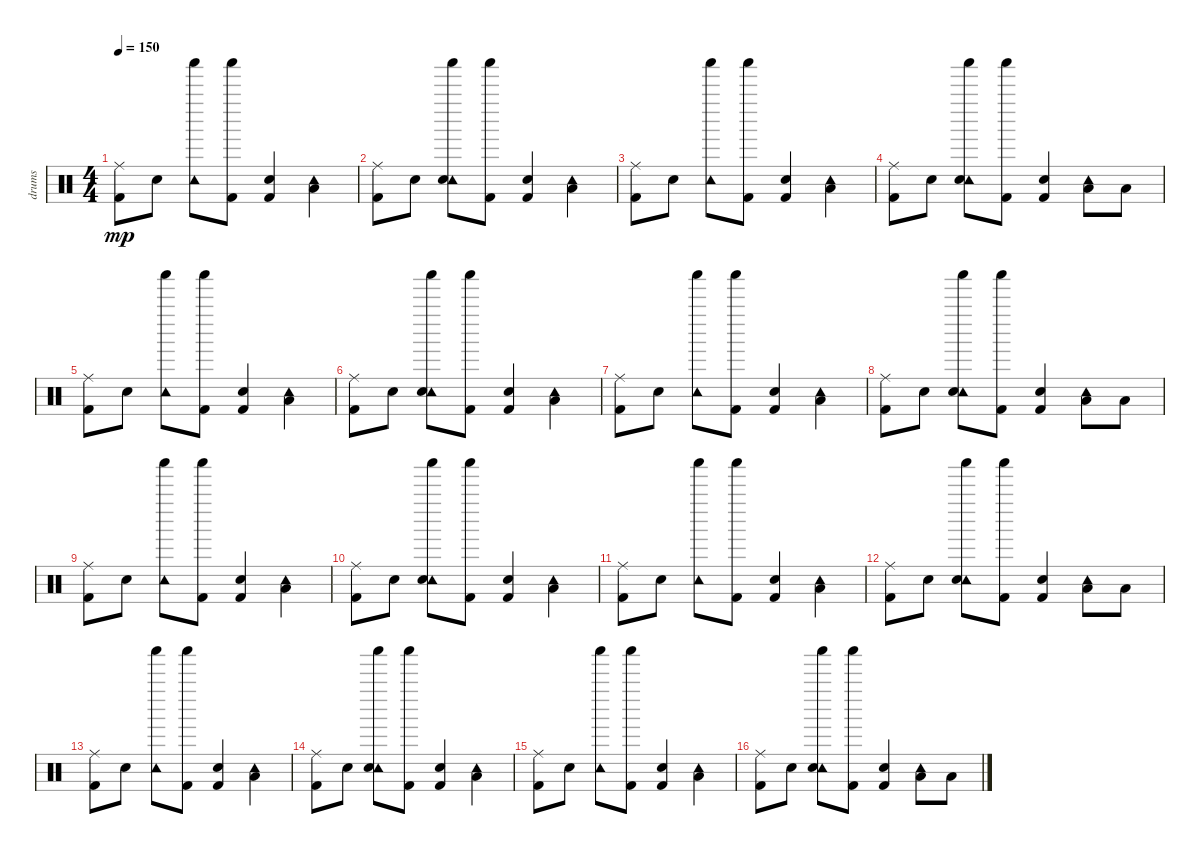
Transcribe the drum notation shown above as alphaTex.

\track ("drums" "drums") {instrument percussion}
\staff {score}
\articulation defaults
\ts (4 4)
\tempo 150
\clef neutral
\ks c
("Ride (middle)" "Kick (hit) 2").8{dy mp} "Snare (hit) 2".8 ("Shaker (hit)" "Tambourine (hit)").8 ("Shaker (hit)" "Kick (hit) 2").8 ("Kick (hit) 2" "Snare (hit) 2").4 ("Tambourine (hit)" "Low Tom (hit)").4 |
("Ride (middle)" "Kick (hit) 2").8 "Snare (hit) 2".8 ("Shaker (hit)" "Tambourine (hit)" "Snare (hit) 2").8 ("Shaker (hit)" "Kick (hit) 2").8 ("Kick (hit) 2" "Snare (hit) 2").4 ("Tambourine (hit)" "Low Tom (hit)").4 |
("Ride (middle)" "Kick (hit) 2").8 "Snare (hit) 2".8 ("Shaker (hit)" "Tambourine (hit)").8 ("Shaker (hit)" "Kick (hit) 2").8 ("Kick (hit) 2" "Snare (hit) 2").4 ("Tambourine (hit)" "Low Tom (hit)").4 |
("Ride (middle)" "Kick (hit) 2").8 "Snare (hit) 2".8 ("Shaker (hit)" "Tambourine (hit)" "Snare (hit) 2").8 ("Shaker (hit)" "Kick (hit) 2").8 ("Kick (hit) 2" "Snare (hit) 2").4 ("Tambourine (hit)" "Low Tom (hit)").8 "Low Tom (hit)".8 |
("Ride (middle)" "Kick (hit) 2").8 "Snare (hit) 2".8 ("Shaker (hit)" "Tambourine (hit)").8 ("Shaker (hit)" "Kick (hit) 2").8 ("Kick (hit) 2" "Snare (hit) 2").4 ("Tambourine (hit)" "Low Tom (hit)").4 |
("Ride (middle)" "Kick (hit) 2").8 "Snare (hit) 2".8 ("Shaker (hit)" "Tambourine (hit)" "Snare (hit) 2").8 ("Shaker (hit)" "Kick (hit) 2").8 ("Kick (hit) 2" "Snare (hit) 2").4 ("Tambourine (hit)" "Low Tom (hit)").4 |
("Ride (middle)" "Kick (hit) 2").8 "Snare (hit) 2".8 ("Shaker (hit)" "Tambourine (hit)").8 ("Shaker (hit)" "Kick (hit) 2").8 ("Kick (hit) 2" "Snare (hit) 2").4 ("Tambourine (hit)" "Low Tom (hit)").4 |
("Ride (middle)" "Kick (hit) 2").8 "Snare (hit) 2".8 ("Shaker (hit)" "Tambourine (hit)" "Snare (hit) 2").8 ("Shaker (hit)" "Kick (hit) 2").8 ("Kick (hit) 2" "Snare (hit) 2").4 ("Tambourine (hit)" "Low Tom (hit)").8 "Low Tom (hit)".8 |
("Ride (middle)" "Kick (hit) 2").8 "Snare (hit) 2".8 ("Shaker (hit)" "Tambourine (hit)").8 ("Shaker (hit)" "Kick (hit) 2").8 ("Kick (hit) 2" "Snare (hit) 2").4 ("Tambourine (hit)" "Low Tom (hit)").4 |
("Ride (middle)" "Kick (hit) 2").8 "Snare (hit) 2".8 ("Shaker (hit)" "Tambourine (hit)" "Snare (hit) 2").8 ("Shaker (hit)" "Kick (hit) 2").8 ("Kick (hit) 2" "Snare (hit) 2").4 ("Tambourine (hit)" "Low Tom (hit)").4 |
("Ride (middle)" "Kick (hit) 2").8 "Snare (hit) 2".8 ("Shaker (hit)" "Tambourine (hit)").8 ("Shaker (hit)" "Kick (hit) 2").8 ("Kick (hit) 2" "Snare (hit) 2").4 ("Tambourine (hit)" "Low Tom (hit)").4 |
("Ride (middle)" "Kick (hit) 2").8 "Snare (hit) 2".8 ("Shaker (hit)" "Tambourine (hit)" "Snare (hit) 2").8 ("Shaker (hit)" "Kick (hit) 2").8 ("Kick (hit) 2" "Snare (hit) 2").4 ("Tambourine (hit)" "Low Tom (hit)").8 "Low Tom (hit)".8 |
("Ride (middle)" "Kick (hit) 2").8 "Snare (hit) 2".8 ("Shaker (hit)" "Tambourine (hit)").8 ("Shaker (hit)" "Kick (hit) 2").8 ("Kick (hit) 2" "Snare (hit) 2").4 ("Tambourine (hit)" "Low Tom (hit)").4 |
("Ride (middle)" "Kick (hit) 2").8 "Snare (hit) 2".8 ("Shaker (hit)" "Tambourine (hit)" "Snare (hit) 2").8 ("Shaker (hit)" "Kick (hit) 2").8 ("Kick (hit) 2" "Snare (hit) 2").4 ("Tambourine (hit)" "Low Tom (hit)").4 |
("Ride (middle)" "Kick (hit) 2").8 "Snare (hit) 2".8 ("Shaker (hit)" "Tambourine (hit)").8 ("Shaker (hit)" "Kick (hit) 2").8 ("Kick (hit) 2" "Snare (hit) 2").4 ("Tambourine (hit)" "Low Tom (hit)").4 |
("Ride (middle)" "Kick (hit) 2").8 "Snare (hit) 2".8 ("Shaker (hit)" "Tambourine (hit)" "Snare (hit) 2").8 ("Shaker (hit)" "Kick (hit) 2").8 ("Kick (hit) 2" "Snare (hit) 2").4 ("Tambourine (hit)" "Low Tom (hit)").8 "Low Tom (hit)".8
